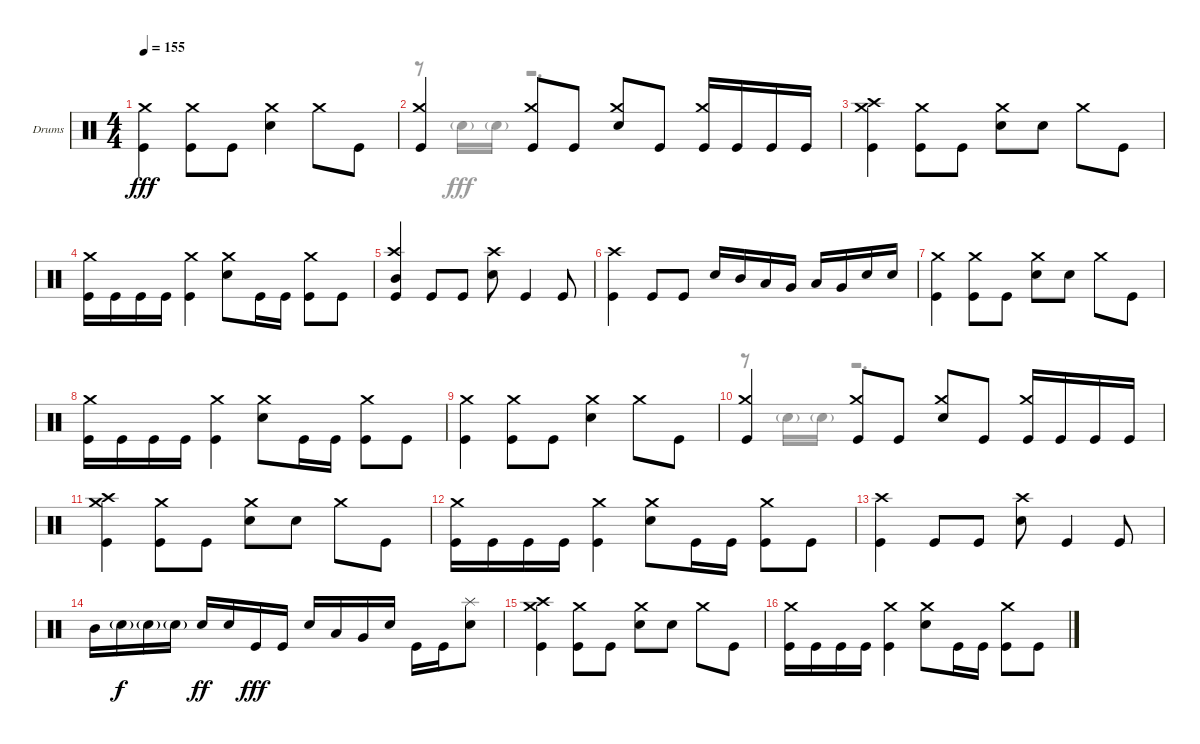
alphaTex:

\defaultSystemsLayout 4
\bracketExtendMode groupsimilarinstruments
\firstSystemTrackNameOrientation horizontal
\otherSystemsTrackNameOrientation horizontal
\track ("Alex Rudinger" "Drums") {instrument percussion}
\staff {score}
\articulation defaults
\voice
\ts (4 4)
\tempo 155
\clef neutral
\ks c
("Kick (hit)" "Crash medium (hit)").4{dy fff} ("Kick (hit)" "Crash medium (hit)").8 "Kick (hit)".8 ("Snare (hit) 2" "Crash medium (hit)").4 "Crash medium (hit)".8 "Kick (hit)".8 |
("Kick (hit)" "Crash medium (hit)").4 ("Kick (hit)" "Crash medium (hit)").8 "Kick (hit)".8 ("Snare (hit) 2" "Crash medium (hit)").8 "Kick (hit)".8 ("Kick (hit)" "Crash medium (hit)").16 "Kick (hit)".16 "Kick (hit)".16 "Kick (hit)".16 |
("Kick (hit)" "Crash medium (hit)" "Crash high (hit)").4 ("Kick (hit)" "Crash medium (hit)").8 "Kick (hit)".8 ("Snare (hit) 2" "Crash medium (hit)").8 "Snare (hit) 2".8 "Crash medium (hit)".8 "Kick (hit)".8 |
("Kick (hit)" "Crash medium (hit)").16 "Kick (hit)".16 "Kick (hit)".16 "Kick (hit)".16 ("Kick (hit)" "Crash medium (hit)").4 ("Snare (hit) 2" "Crash medium (hit)").8 "Kick (hit)".16 "Kick (hit)".16 ("Kick (hit)" "Crash medium (hit)").8 "Kick (hit)".8 |
("Kick (hit)" "Crash high (hit)" "Mid Tom (hit)").4 "Kick (hit)".8 "Kick (hit)".8 ("Snare (hit) 2" "Crash high (hit)").8 "Kick (hit)".4 "Kick (hit)".8 |
("Kick (hit)" "Crash high (hit)").4 "Kick (hit)".8 "Kick (hit)".8 "Snare (hit) 2".16 "Mid Tom (hit)".16 "Low Tom (hit)".16 "Very Low Tom (hit)".16 "Low Tom (hit)".16 "Very Low Tom (hit)".16 "Snare (hit) 2".16 "Snare (hit) 2".16 |
("Kick (hit)" "Crash medium (hit)").4 ("Kick (hit)" "Crash medium (hit)").8 "Kick (hit)".8 ("Snare (hit) 2" "Crash medium (hit)").8 "Snare (hit) 2".8 "Crash medium (hit)".8 "Kick (hit)".8 |
("Kick (hit)" "Crash medium (hit)").16 "Kick (hit)".16 "Kick (hit)".16 "Kick (hit)".16 ("Kick (hit)" "Crash medium (hit)").4 ("Snare (hit) 2" "Crash medium (hit)").8 "Kick (hit)".16 "Kick (hit)".16 ("Kick (hit)" "Crash medium (hit)").8 "Kick (hit)".8 |
("Kick (hit)" "Crash medium (hit)").4 ("Kick (hit)" "Crash medium (hit)").8 "Kick (hit)".8 ("Snare (hit) 2" "Crash medium (hit)").4 "Crash medium (hit)".8 "Kick (hit)".8 |
("Kick (hit)" "Crash medium (hit)").4 ("Kick (hit)" "Crash medium (hit)").8 "Kick (hit)".8 ("Snare (hit) 2" "Crash medium (hit)").8 "Kick (hit)".8 ("Kick (hit)" "Crash medium (hit)").16 "Kick (hit)".16 "Kick (hit)".16 "Kick (hit)".16 |
("Kick (hit)" "Crash medium (hit)" "Crash high (hit)").4 ("Kick (hit)" "Crash medium (hit)").8 "Kick (hit)".8 ("Snare (hit) 2" "Crash medium (hit)").8 "Snare (hit) 2".8 "Crash medium (hit)".8 "Kick (hit)".8 |
("Kick (hit)" "Crash medium (hit)").16 "Kick (hit)".16 "Kick (hit)".16 "Kick (hit)".16 ("Kick (hit)" "Crash medium (hit)").4 ("Snare (hit) 2" "Crash medium (hit)").8 "Kick (hit)".16 "Kick (hit)".16 ("Kick (hit)" "Crash medium (hit)").8 "Kick (hit)".8 |
("Kick (hit)" "Crash high (hit)").4 "Kick (hit)".8 "Kick (hit)".8 ("Snare (hit) 2" "Crash high (hit)").8 "Kick (hit)".4 "Kick (hit)".8 |
"Mid Tom (hit)".16 "Snare (hit) 2"{g}.16{dy f} "Snare (hit) 2"{g}.16 "Snare (hit) 2"{g}.16 "Snare (hit) 2".16{dy ff} "Snare (hit) 2".16 "Kick (hit)".16{dy fff} "Kick (hit)".16 "Snare (hit) 2".16 "Low Tom (hit)".16 "Very Low Tom (hit)".16 "Snare (hit) 2".16 "Kick (hit)".16 "Kick (hit)".16 ("Snare (hit) 2" "Splash (hit)").8 |
("Kick (hit)" "Crash high (hit)" "Crash medium (hit)").4 ("Kick (hit)" "Crash medium (hit)").8 "Kick (hit)".8 ("Snare (hit) 2" "Crash medium (hit)").8 "Snare (hit) 2".8 "Crash medium (hit)".8 "Kick (hit)".8 |
("Kick (hit)" "Crash medium (hit)").16 "Kick (hit)".16 "Kick (hit)".16 "Kick (hit)".16 ("Kick (hit)" "Crash medium (hit)").4 ("Snare (hit) 2" "Crash medium (hit)").8 "Kick (hit)".16 "Kick (hit)".16 ("Kick (hit)" "Crash medium (hit)").8 "Kick (hit)".8
\voice
\clef neutral
\ottava regular
\simile none
\ks c
|
r.8 "Snare (hit) 2"{g}.16 "Snare (hit) 2"{g}.16 r.2{d} |
|
|
|
|
|
|
|
r.8 "Snare (hit) 2"{g}.16 "Snare (hit) 2"{g}.16 r.2{d} |
|
|
|
|
|
